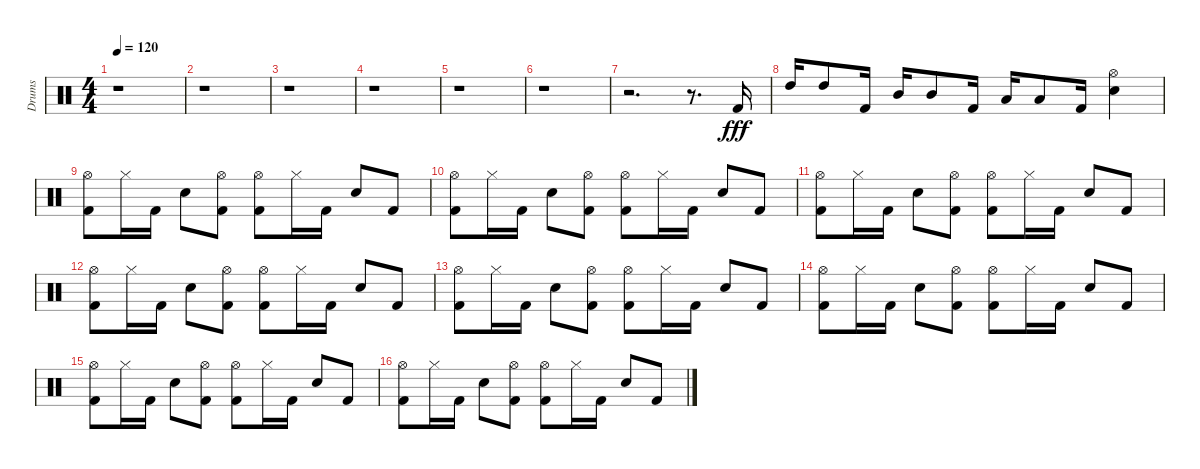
\track ("Drums" "Drums") {instrument percussion}
\staff {score}
\articulation defaults
\ts (4 4)
\tempo 120
\clef neutral
\ks c
r.1{dy fff} |
r.1 |
r.1 |
r.1 |
r.1 |
r.1 |
r.2{d} r.8{d} "Kick (hit) 2".16 |
"High Tom (hit)".16 "High Tom (hit)".8 "Kick (hit) 2".16 "Mid Tom (hit)".16 "Mid Tom (hit)".8 "Kick (hit) 2".16 "Low Tom (hit)".16 "Low Tom (hit)".8 "Kick (hit) 2".16 ("Hi-Hat (open)" "Electric Snare (hit)").4 |
("Hi-Hat (open)" "Kick (hit) 2").8 "Hi-Hat (closed)".16 "Kick (hit) 2".16 "Electric Snare (hit)".8 ("Hi-Hat (open)" "Kick (hit) 2").8 ("Hi-Hat (open)" "Kick (hit) 2").8 "Hi-Hat (closed)".16 "Kick (hit) 2".16 "Electric Snare (hit)".8 "Kick (hit) 2".8 |
("Hi-Hat (open)" "Kick (hit) 2").8 "Hi-Hat (closed)".16 "Kick (hit) 2".16 "Electric Snare (hit)".8 ("Hi-Hat (open)" "Kick (hit) 2").8 ("Hi-Hat (open)" "Kick (hit) 2").8 "Hi-Hat (closed)".16 "Kick (hit) 2".16 "Electric Snare (hit)".8 "Kick (hit) 2".8 |
("Hi-Hat (open)" "Kick (hit) 2").8 "Hi-Hat (closed)".16 "Kick (hit) 2".16 "Electric Snare (hit)".8 ("Hi-Hat (open)" "Kick (hit) 2").8 ("Hi-Hat (open)" "Kick (hit) 2").8 "Hi-Hat (closed)".16 "Kick (hit) 2".16 "Electric Snare (hit)".8 "Kick (hit) 2".8 |
("Hi-Hat (open)" "Kick (hit) 2").8 "Hi-Hat (closed)".16 "Kick (hit) 2".16 "Electric Snare (hit)".8 ("Hi-Hat (open)" "Kick (hit) 2").8 ("Hi-Hat (open)" "Kick (hit) 2").8 "Hi-Hat (closed)".16 "Kick (hit) 2".16 "Electric Snare (hit)".8 "Kick (hit) 2".8 |
("Hi-Hat (open)" "Kick (hit) 2").8 "Hi-Hat (closed)".16 "Kick (hit) 2".16 "Electric Snare (hit)".8 ("Hi-Hat (open)" "Kick (hit) 2").8 ("Hi-Hat (open)" "Kick (hit) 2").8 "Hi-Hat (closed)".16 "Kick (hit) 2".16 "Electric Snare (hit)".8 "Kick (hit) 2".8 |
("Hi-Hat (open)" "Kick (hit) 2").8 "Hi-Hat (closed)".16 "Kick (hit) 2".16 "Electric Snare (hit)".8 ("Hi-Hat (open)" "Kick (hit) 2").8 ("Hi-Hat (open)" "Kick (hit) 2").8 "Hi-Hat (closed)".16 "Kick (hit) 2".16 "Electric Snare (hit)".8 "Kick (hit) 2".8 |
("Hi-Hat (open)" "Kick (hit) 2").8 "Hi-Hat (closed)".16 "Kick (hit) 2".16 "Electric Snare (hit)".8 ("Hi-Hat (open)" "Kick (hit) 2").8 ("Hi-Hat (open)" "Kick (hit) 2").8 "Hi-Hat (closed)".16 "Kick (hit) 2".16 "Electric Snare (hit)".8 "Kick (hit) 2".8 |
("Hi-Hat (open)" "Kick (hit) 2").8 "Hi-Hat (closed)".16 "Kick (hit) 2".16 "Electric Snare (hit)".8 ("Hi-Hat (open)" "Kick (hit) 2").8 ("Hi-Hat (open)" "Kick (hit) 2").8 "Hi-Hat (closed)".16 "Kick (hit) 2".16 "Electric Snare (hit)".8 "Kick (hit) 2".8
